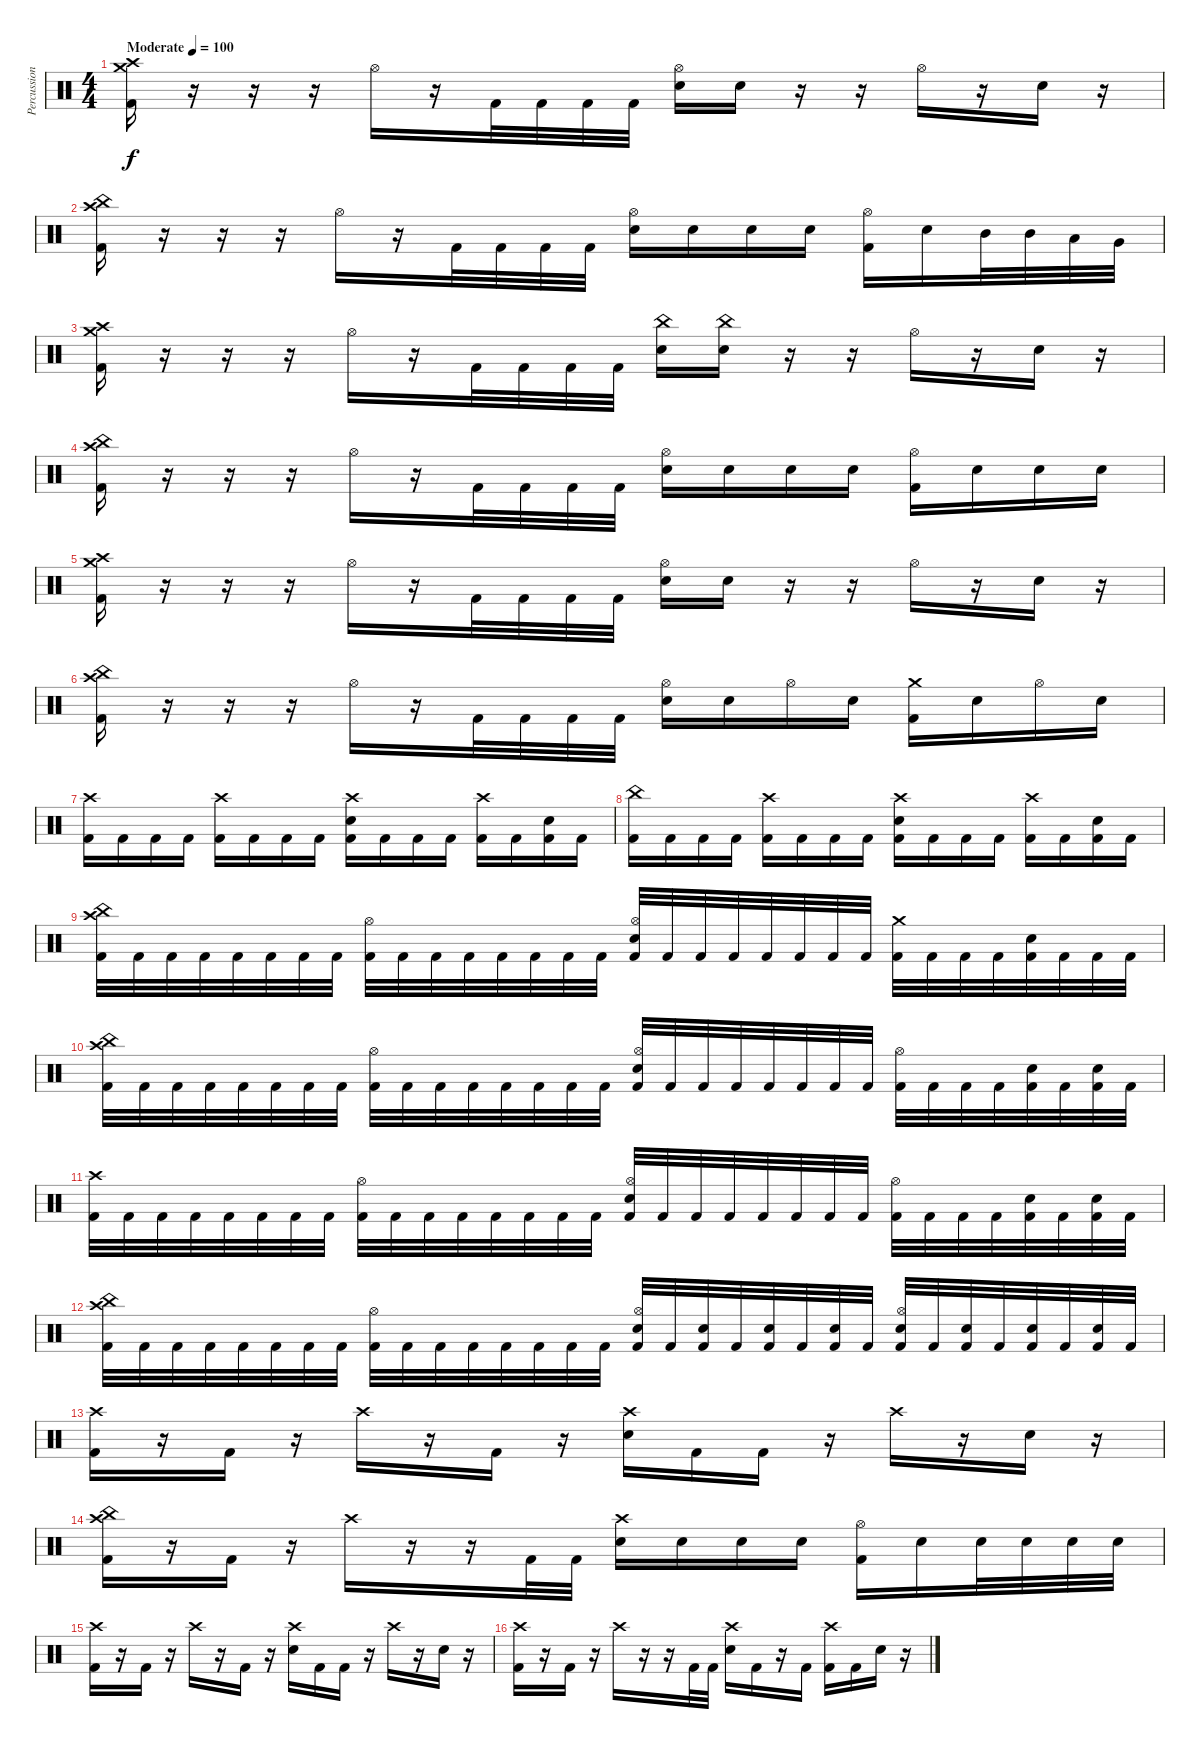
\track ("Percussion" "Percussion") {instrument percussion}
\staff {score}
\articulation defaults
\ts (4 4)
\tempo (100 "Moderate")
\clef neutral
\ks c
("Crash high (hit)" "Crash medium (hit)" "Kick (hit) 2").16{dy f} r.16 r.16 r.16 "Hi-Hat (open)".16 r.16 "Kick (hit) 2".32 "Kick (hit) 2".32 "Kick (hit) 2".32 "Kick (hit) 2".32 ("Hi-Hat (open)" "Snare (hit) 2").16 "Snare (hit) 2".16 r.16 r.16 "Hi-Hat (open)".16 r.16 "Snare (hit) 2".16 r.16 |
("Crash high (hit)" "China (hit)" "Kick (hit) 2").16 r.16 r.16 r.16 "Hi-Hat (open)".16 r.16 "Kick (hit) 2".32 "Kick (hit) 2".32 "Kick (hit) 2".32 "Kick (hit) 2".32 ("Hi-Hat (open)" "Snare (hit) 2").16 "Snare (hit) 2".16 "Snare (hit) 2".16 "Snare (hit) 2".16 ("Hi-Hat (open)" "Kick (hit) 2").16 "Snare (hit) 2".16 "Mid Tom (hit)".32 "Mid Tom (hit)".32 "Low Tom (hit)".32 "Very Low Tom (hit)".32 |
("Crash high (hit)" "Crash medium (hit)" "Kick (hit) 2").16 r.16 r.16 r.16 "Hi-Hat (open)".16 r.16 "Kick (hit) 2".32 "Kick (hit) 2".32 "Kick (hit) 2".32 "Kick (hit) 2".32 ("China (hit)" "Snare (hit) 2").16 ("China (hit)" "Snare (hit) 2").16 r.16 r.16 "Hi-Hat (open)".16 r.16 "Snare (hit) 2".16 r.16 |
("Crash high (hit)" "China (hit)" "Kick (hit) 2").16 r.16 r.16 r.16 "Hi-Hat (open)".16 r.16 "Kick (hit) 2".32 "Kick (hit) 2".32 "Kick (hit) 2".32 "Kick (hit) 2".32 ("Hi-Hat (open)" "Snare (hit) 2").16 "Snare (hit) 2".16 "Snare (hit) 2".16 "Snare (hit) 2".16 ("Hi-Hat (open)" "Kick (hit) 2").16 "Snare (hit) 2".16 "Snare (hit) 2".16 "Snare (hit) 2".16 |
("Crash high (hit)" "Crash medium (hit)" "Kick (hit) 2").16 r.16 r.16 r.16 "Hi-Hat (open)".16 r.16 "Kick (hit) 2".32 "Kick (hit) 2".32 "Kick (hit) 2".32 "Kick (hit) 2".32 ("Hi-Hat (open)" "Snare (hit) 2").16 "Snare (hit) 2".16 r.16 r.16 "Hi-Hat (open)".16 r.16 "Snare (hit) 2".16 r.16 |
("Crash high (hit)" "China (hit)" "Kick (hit) 2").16 r.16 r.16 r.16 "Hi-Hat (open)".16 r.16 "Kick (hit) 2".32 "Kick (hit) 2".32 "Kick (hit) 2".32 "Kick (hit) 2".32 ("Hi-Hat (open)" "Snare (hit) 2").16 "Snare (hit) 2".16 "Hi-Hat (open)".16 "Snare (hit) 2".16 ("Crash medium (hit)" "Kick (hit) 2").16 "Snare (hit) 2".16 "Hi-Hat (open)".16 "Snare (hit) 2".16 |
("Crash high (hit)" "Kick (hit) 2").16 "Kick (hit) 2".16 "Kick (hit) 2".16 "Kick (hit) 2".16 ("Crash high (hit)" "Kick (hit) 2").16 "Kick (hit) 2".16 "Kick (hit) 2".16 "Kick (hit) 2".16 ("Crash high (hit)" "Snare (hit) 2" "Kick (hit) 2").16 "Kick (hit) 2".16 "Kick (hit) 2".16 "Kick (hit) 2".16 ("Crash high (hit)" "Kick (hit) 2").16 "Kick (hit) 2".16 ("Snare (hit) 2" "Kick (hit) 2").16 "Kick (hit) 2".16 |
("China (hit)" "Kick (hit) 2").16 "Kick (hit) 2".16 "Kick (hit) 2".16 "Kick (hit) 2".16 ("Crash high (hit)" "Kick (hit) 2").16 "Kick (hit) 2".16 "Kick (hit) 2".16 "Kick (hit) 2".16 ("Crash high (hit)" "Snare (hit) 2" "Kick (hit) 2").16 "Kick (hit) 2".16 "Kick (hit) 2".16 "Kick (hit) 2".16 ("Crash high (hit)" "Kick (hit) 2").16 "Kick (hit) 2".16 ("Snare (hit) 2" "Kick (hit) 2").16 "Kick (hit) 2".16 |
("China (hit)" "Crash high (hit)" "Kick (hit) 2").32 "Kick (hit) 2".32 "Kick (hit) 2".32 "Kick (hit) 2".32 "Kick (hit) 2".32 "Kick (hit) 2".32 "Kick (hit) 2".32 "Kick (hit) 2".32 ("Hi-Hat (open)" "Kick (hit) 2").32 "Kick (hit) 2".32 "Kick (hit) 2".32 "Kick (hit) 2".32 "Kick (hit) 2".32 "Kick (hit) 2".32 "Kick (hit) 2".32 "Kick (hit) 2".32 ("Hi-Hat (open)" "Snare (hit) 2" "Kick (hit) 2").32 "Kick (hit) 2".32 "Kick (hit) 2".32 "Kick (hit) 2".32 "Kick (hit) 2".32 "Kick (hit) 2".32 "Kick (hit) 2".32 "Kick (hit) 2".32 ("Crash medium (hit)" "Kick (hit) 2").32 "Kick (hit) 2".32 "Kick (hit) 2".32 "Kick (hit) 2".32 ("Snare (hit) 2" "Kick (hit) 2").32 "Kick (hit) 2".32 "Kick (hit) 2".32 "Kick (hit) 2".32 |
("China (hit)" "Crash high (hit)" "Kick (hit) 2").32 "Kick (hit) 2".32 "Kick (hit) 2".32 "Kick (hit) 2".32 "Kick (hit) 2".32 "Kick (hit) 2".32 "Kick (hit) 2".32 "Kick (hit) 2".32 ("Hi-Hat (open)" "Kick (hit) 2").32 "Kick (hit) 2".32 "Kick (hit) 2".32 "Kick (hit) 2".32 "Kick (hit) 2".32 "Kick (hit) 2".32 "Kick (hit) 2".32 "Kick (hit) 2".32 ("Hi-Hat (open)" "Snare (hit) 2" "Kick (hit) 2").32 "Kick (hit) 2".32 "Kick (hit) 2".32 "Kick (hit) 2".32 "Kick (hit) 2".32 "Kick (hit) 2".32 "Kick (hit) 2".32 "Kick (hit) 2".32 ("Hi-Hat (open)" "Kick (hit) 2").32 "Kick (hit) 2".32 "Kick (hit) 2".32 "Kick (hit) 2".32 ("Snare (hit) 2" "Kick (hit) 2").32 "Kick (hit) 2".32 ("Snare (hit) 2" "Kick (hit) 2").32 "Kick (hit) 2".32 |
("Crash high (hit)" "Kick (hit) 2").32 "Kick (hit) 2".32 "Kick (hit) 2".32 "Kick (hit) 2".32 "Kick (hit) 2".32 "Kick (hit) 2".32 "Kick (hit) 2".32 "Kick (hit) 2".32 ("Hi-Hat (open)" "Kick (hit) 2").32 "Kick (hit) 2".32 "Kick (hit) 2".32 "Kick (hit) 2".32 "Kick (hit) 2".32 "Kick (hit) 2".32 "Kick (hit) 2".32 "Kick (hit) 2".32 ("Hi-Hat (open)" "Snare (hit) 2" "Kick (hit) 2").32 "Kick (hit) 2".32 "Kick (hit) 2".32 "Kick (hit) 2".32 "Kick (hit) 2".32 "Kick (hit) 2".32 "Kick (hit) 2".32 "Kick (hit) 2".32 ("Hi-Hat (open)" "Kick (hit) 2").32 "Kick (hit) 2".32 "Kick (hit) 2".32 "Kick (hit) 2".32 ("Snare (hit) 2" "Kick (hit) 2").32 "Kick (hit) 2".32 ("Snare (hit) 2" "Kick (hit) 2").32 "Kick (hit) 2".32 |
("Crash high (hit)" "China (hit)" "Kick (hit) 2").32 "Kick (hit) 2".32 "Kick (hit) 2".32 "Kick (hit) 2".32 "Kick (hit) 2".32 "Kick (hit) 2".32 "Kick (hit) 2".32 "Kick (hit) 2".32 ("Hi-Hat (open)" "Kick (hit) 2").32 "Kick (hit) 2".32 "Kick (hit) 2".32 "Kick (hit) 2".32 "Kick (hit) 2".32 "Kick (hit) 2".32 "Kick (hit) 2".32 "Kick (hit) 2".32 ("Hi-Hat (open)" "Snare (hit) 2" "Kick (hit) 2").32 "Kick (hit) 2".32 ("Snare (hit) 2" "Kick (hit) 2").32 "Kick (hit) 2".32 ("Snare (hit) 2" "Kick (hit) 2").32 "Kick (hit) 2".32 ("Snare (hit) 2" "Kick (hit) 2").32 "Kick (hit) 2".32 ("Hi-Hat (open)" "Snare (hit) 2" "Kick (hit) 2").32 "Kick (hit) 2".32 ("Snare (hit) 2" "Kick (hit) 2").32 "Kick (hit) 2".32 ("Snare (hit) 2" "Kick (hit) 2").32 "Kick (hit) 2".32 ("Snare (hit) 2" "Kick (hit) 2").32 "Kick (hit) 2".32 |
("Crash high (hit)" "Kick (hit) 2").16 r.16 "Kick (hit) 2".16 r.16 "Crash high (hit)".16 r.16 "Kick (hit) 2".16 r.16 ("Crash high (hit)" "Snare (hit) 2").16 "Kick (hit) 2".16 "Kick (hit) 2".16 r.16 "Crash high (hit)".16 r.16 "Snare (hit) 2".16 r.16 |
("Crash high (hit)" "China (hit)" "Kick (hit) 2").16 r.16 "Kick (hit) 2".16 r.16 "Crash high (hit)".16 r.16 r.16 "Kick (hit) 2".32 "Kick (hit) 2".32 ("Crash high (hit)" "Snare (hit) 2").16 "Snare (hit) 2".16 "Snare (hit) 2".16 "Snare (hit) 2".16 ("Hi-Hat (open)" "Kick (hit) 2").16 "Snare (hit) 2".16 "Snare (hit) 2".32 "Snare (hit) 2".32 "Snare (hit) 2".32 "Snare (hit) 2".32 |
("Crash high (hit)" "Kick (hit) 2").16 r.16 "Kick (hit) 2".16 r.16 "Crash high (hit)".16 r.16 "Kick (hit) 2".16 r.16 ("Crash high (hit)" "Snare (hit) 2").16 "Kick (hit) 2".16 "Kick (hit) 2".16 r.16 "Crash high (hit)".16 r.16 "Snare (hit) 2".16 r.16 |
("Crash high (hit)" "Kick (hit) 2").16 r.16 "Kick (hit) 2".16 r.16 "Crash high (hit)".16 r.16 r.16 "Kick (hit) 2".32 "Kick (hit) 2".32 ("Crash high (hit)" "Snare (hit) 2").16 "Kick (hit) 2".16 r.16 "Kick (hit) 2".16 ("Crash high (hit)" "Kick (hit) 2").16 "Kick (hit) 2".16 "Snare (hit) 2".16 r.16
